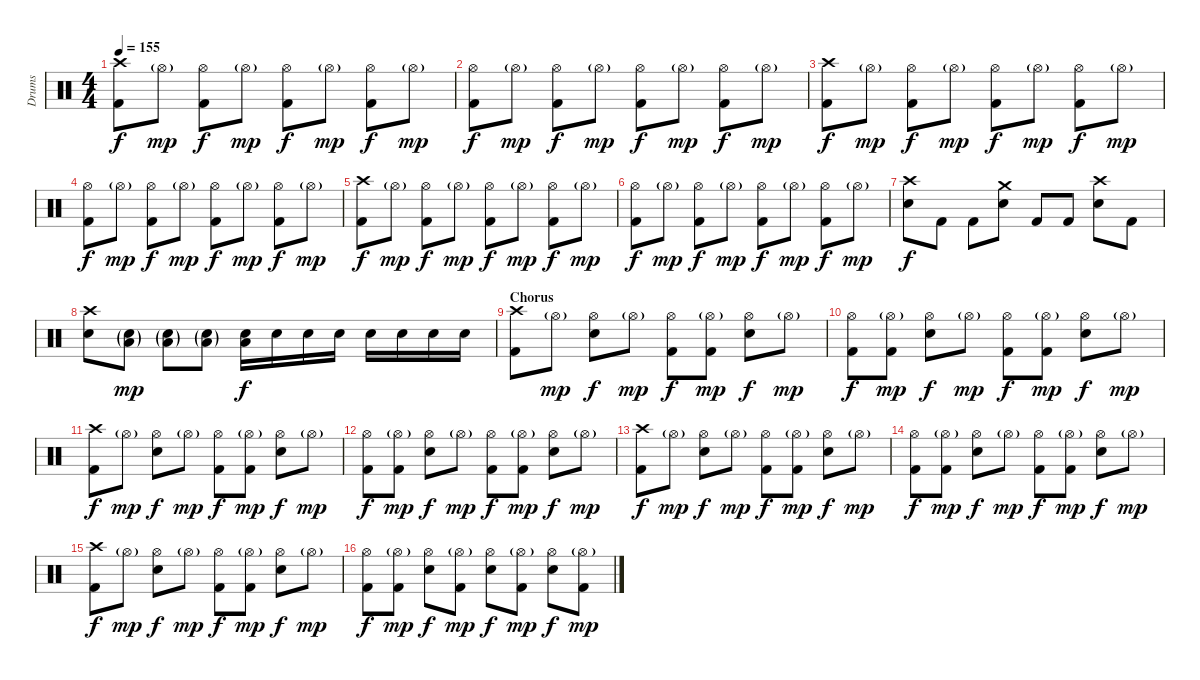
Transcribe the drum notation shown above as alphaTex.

\track ("Drums" "Drums") {instrument percussion}
\staff {score}
\articulation defaults
\ts (4 4)
\tempo 155
\clef neutral
\ks c
("Crash high (hit)" "Kick (hit) 2").8{dy f} "Hi-Hat (open)"{g}.8{dy mp} ("Hi-Hat (open)" "Kick (hit) 2").8{dy f} "Hi-Hat (open)"{g}.8{dy mp} ("Hi-Hat (open)" "Kick (hit) 2").8{dy f} "Hi-Hat (open)"{g}.8{dy mp} ("Hi-Hat (open)" "Kick (hit) 2").8{dy f} "Hi-Hat (open)"{g}.8{dy mp} |
("Hi-Hat (open)" "Kick (hit) 2").8{dy f} "Hi-Hat (open)"{g}.8{dy mp} ("Hi-Hat (open)" "Kick (hit) 2").8{dy f} "Hi-Hat (open)"{g}.8{dy mp} ("Hi-Hat (open)" "Kick (hit) 2").8{dy f} "Hi-Hat (open)"{g}.8{dy mp} ("Hi-Hat (open)" "Kick (hit) 2").8{dy f} "Hi-Hat (open)"{g}.8{dy mp} |
("Crash high (hit)" "Kick (hit) 2").8{dy f} "Hi-Hat (open)"{g}.8{dy mp} ("Hi-Hat (open)" "Kick (hit) 2").8{dy f} "Hi-Hat (open)"{g}.8{dy mp} ("Hi-Hat (open)" "Kick (hit) 2").8{dy f} "Hi-Hat (open)"{g}.8{dy mp} ("Hi-Hat (open)" "Kick (hit) 2").8{dy f} "Hi-Hat (open)"{g}.8{dy mp} |
("Hi-Hat (open)" "Kick (hit) 2").8{dy f} "Hi-Hat (open)"{g}.8{dy mp} ("Hi-Hat (open)" "Kick (hit) 2").8{dy f} "Hi-Hat (open)"{g}.8{dy mp} ("Hi-Hat (open)" "Kick (hit) 2").8{dy f} "Hi-Hat (open)"{g}.8{dy mp} ("Hi-Hat (open)" "Kick (hit) 2").8{dy f} "Hi-Hat (open)"{g}.8{dy mp} |
("Crash high (hit)" "Kick (hit) 2").8{dy f} "Hi-Hat (open)"{g}.8{dy mp} ("Hi-Hat (open)" "Kick (hit) 2").8{dy f} "Hi-Hat (open)"{g}.8{dy mp} ("Hi-Hat (open)" "Kick (hit) 2").8{dy f} "Hi-Hat (open)"{g}.8{dy mp} ("Hi-Hat (open)" "Kick (hit) 2").8{dy f} "Hi-Hat (open)"{g}.8{dy mp} |
("Hi-Hat (open)" "Kick (hit) 2").8{dy f} "Hi-Hat (open)"{g}.8{dy mp} ("Hi-Hat (open)" "Kick (hit) 2").8{dy f} "Hi-Hat (open)"{g}.8{dy mp} ("Hi-Hat (open)" "Kick (hit) 2").8{dy f} "Hi-Hat (open)"{g}.8{dy mp} ("Hi-Hat (open)" "Kick (hit) 2").8{dy f} "Hi-Hat (open)"{g}.8{dy mp} |
("Crash high (hit)" "Electric Snare (hit)").8{dy f} "Kick (hit) 2".8 "Kick (hit) 2".8 ("Crash medium (hit)" "Electric Snare (hit)").8 "Kick (hit) 2".8 "Kick (hit) 2".8 ("Crash high (hit)" "Electric Snare (hit)").8 "Kick (hit) 2".8 |
("Crash high (hit)" "Electric Snare (hit)").8 ("Low Floor Tom (hit)"{g} "Electric Snare (hit)"{g}).8{dy mp} ("Low Floor Tom (hit)"{g} "Electric Snare (hit)"{g}).8 ("Low Floor Tom (hit)"{g} "Electric Snare (hit)"{g}).8 ("Low Floor Tom (hit)" "Electric Snare (hit)").16{dy f} "Electric Snare (hit)".16 "Electric Snare (hit)".16 "Electric Snare (hit)".16 "Electric Snare (hit)".16 "Electric Snare (hit)".16 "Electric Snare (hit)".16 "Electric Snare (hit)".16 |
\section ("" "Chorus")
("Crash high (hit)" "Kick (hit) 2").8 "Hi-Hat (open)"{g}.8{dy mp} ("Hi-Hat (open)" "Electric Snare (hit)").8{dy f} "Hi-Hat (open)"{g}.8{dy mp} ("Hi-Hat (open)" "Kick (hit) 2").8{dy f} ("Hi-Hat (open)"{g} "Kick (hit) 2").8{dy mp} ("Hi-Hat (open)" "Electric Snare (hit)").8{dy f} "Hi-Hat (open)"{g}.8{dy mp} |
("Hi-Hat (open)" "Kick (hit) 2").8{dy f} ("Hi-Hat (open)"{g} "Kick (hit) 2").8{dy mp} ("Hi-Hat (open)" "Electric Snare (hit)").8{dy f} "Hi-Hat (open)"{g}.8{dy mp} ("Hi-Hat (open)" "Kick (hit) 2").8{dy f} ("Hi-Hat (open)"{g} "Kick (hit) 2").8{dy mp} ("Hi-Hat (open)" "Electric Snare (hit)").8{dy f} "Hi-Hat (open)"{g}.8{dy mp} |
("Crash high (hit)" "Kick (hit) 2").8{dy f} "Hi-Hat (open)"{g}.8{dy mp} ("Hi-Hat (open)" "Electric Snare (hit)").8{dy f} "Hi-Hat (open)"{g}.8{dy mp} ("Hi-Hat (open)" "Kick (hit) 2").8{dy f} ("Hi-Hat (open)"{g} "Kick (hit) 2").8{dy mp} ("Hi-Hat (open)" "Electric Snare (hit)").8{dy f} "Hi-Hat (open)"{g}.8{dy mp} |
("Hi-Hat (open)" "Kick (hit) 2").8{dy f} ("Hi-Hat (open)"{g} "Kick (hit) 2").8{dy mp} ("Hi-Hat (open)" "Electric Snare (hit)").8{dy f} "Hi-Hat (open)"{g}.8{dy mp} ("Hi-Hat (open)" "Kick (hit) 2").8{dy f} ("Hi-Hat (open)"{g} "Kick (hit) 2").8{dy mp} ("Hi-Hat (open)" "Electric Snare (hit)").8{dy f} "Hi-Hat (open)"{g}.8{dy mp} |
("Crash high (hit)" "Kick (hit) 2").8{dy f} "Hi-Hat (open)"{g}.8{dy mp} ("Hi-Hat (open)" "Electric Snare (hit)").8{dy f} "Hi-Hat (open)"{g}.8{dy mp} ("Hi-Hat (open)" "Kick (hit) 2").8{dy f} ("Hi-Hat (open)"{g} "Kick (hit) 2").8{dy mp} ("Hi-Hat (open)" "Electric Snare (hit)").8{dy f} "Hi-Hat (open)"{g}.8{dy mp} |
("Hi-Hat (open)" "Kick (hit) 2").8{dy f} ("Hi-Hat (open)"{g} "Kick (hit) 2").8{dy mp} ("Hi-Hat (open)" "Electric Snare (hit)").8{dy f} "Hi-Hat (open)"{g}.8{dy mp} ("Hi-Hat (open)" "Kick (hit) 2").8{dy f} ("Hi-Hat (open)"{g} "Kick (hit) 2").8{dy mp} ("Hi-Hat (open)" "Electric Snare (hit)").8{dy f} "Hi-Hat (open)"{g}.8{dy mp} |
("Crash high (hit)" "Kick (hit) 2").8{dy f} "Hi-Hat (open)"{g}.8{dy mp} ("Hi-Hat (open)" "Electric Snare (hit)").8{dy f} "Hi-Hat (open)"{g}.8{dy mp} ("Hi-Hat (open)" "Kick (hit) 2").8{dy f} ("Hi-Hat (open)"{g} "Kick (hit) 2").8{dy mp} ("Hi-Hat (open)" "Electric Snare (hit)").8{dy f} "Hi-Hat (open)"{g}.8{dy mp} |
("Hi-Hat (open)" "Kick (hit) 2").8{dy f} ("Hi-Hat (open)"{g} "Kick (hit) 2").8{dy mp} ("Hi-Hat (open)" "Electric Snare (hit)").8{dy f} ("Hi-Hat (open)"{g} "Kick (hit) 2").8{dy mp} ("Hi-Hat (open)" "Electric Snare (hit)").8{dy f} ("Hi-Hat (open)"{g} "Kick (hit) 2").8{dy mp} ("Hi-Hat (open)" "Electric Snare (hit)").8{dy f} ("Hi-Hat (open)"{g} "Kick (hit) 2").8{dy mp}
